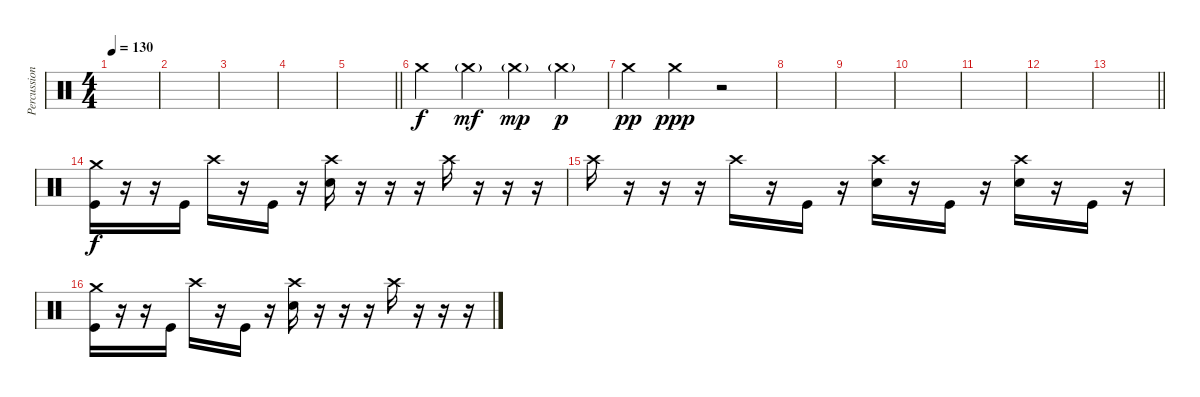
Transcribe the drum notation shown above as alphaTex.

\track ("Percussion" "Percussion") {instrument percussion}
\staff {score}
\articulation defaults
\ts (4 4)
\tempo 130
\clef neutral
\ks c
|
|
|
|
\barLineRight lightlight
|
\section ("" "")
"Crash medium (hit)".4{dy f} "Crash medium (hit)"{g}.4{dy mf} "Crash medium (hit)"{g}.4{dy mp} "Crash medium (hit)"{g}.4{dy p} |
"Crash medium (hit)".4{dy pp} "Crash medium (hit)".4{dy ppp} r.2 |
|
|
|
|
|
\barLineRight lightlight
|
\section ("" "")
("Crash medium (hit)" "Kick (hit)").16{dy f} r.16 r.16 "Kick (hit)".16 "Crash high (hit)".16 r.16 "Kick (hit)".16 r.16 ("Crash high (hit)" "Electric Snare (hit)").16 r.16 r.16 r.16 "Crash high (hit)".16 r.16 r.16 r.16 |
"Crash high (hit)".16 r.16 r.16 r.16 "Crash high (hit)".16 r.16 "Kick (hit)".16 r.16 ("Crash high (hit)" "Electric Snare (hit)").16 r.16 "Kick (hit)".16 r.16 ("Crash high (hit)" "Electric Snare (hit)").16 r.16 "Kick (hit)".16 r.16 |
("Crash medium (hit)" "Kick (hit)").16 r.16 r.16 "Kick (hit)".16 "Crash high (hit)".16 r.16 "Kick (hit)".16 r.16 ("Crash high (hit)" "Electric Snare (hit)").16 r.16 r.16 r.16 "Crash high (hit)".16 r.16 r.16 r.16
